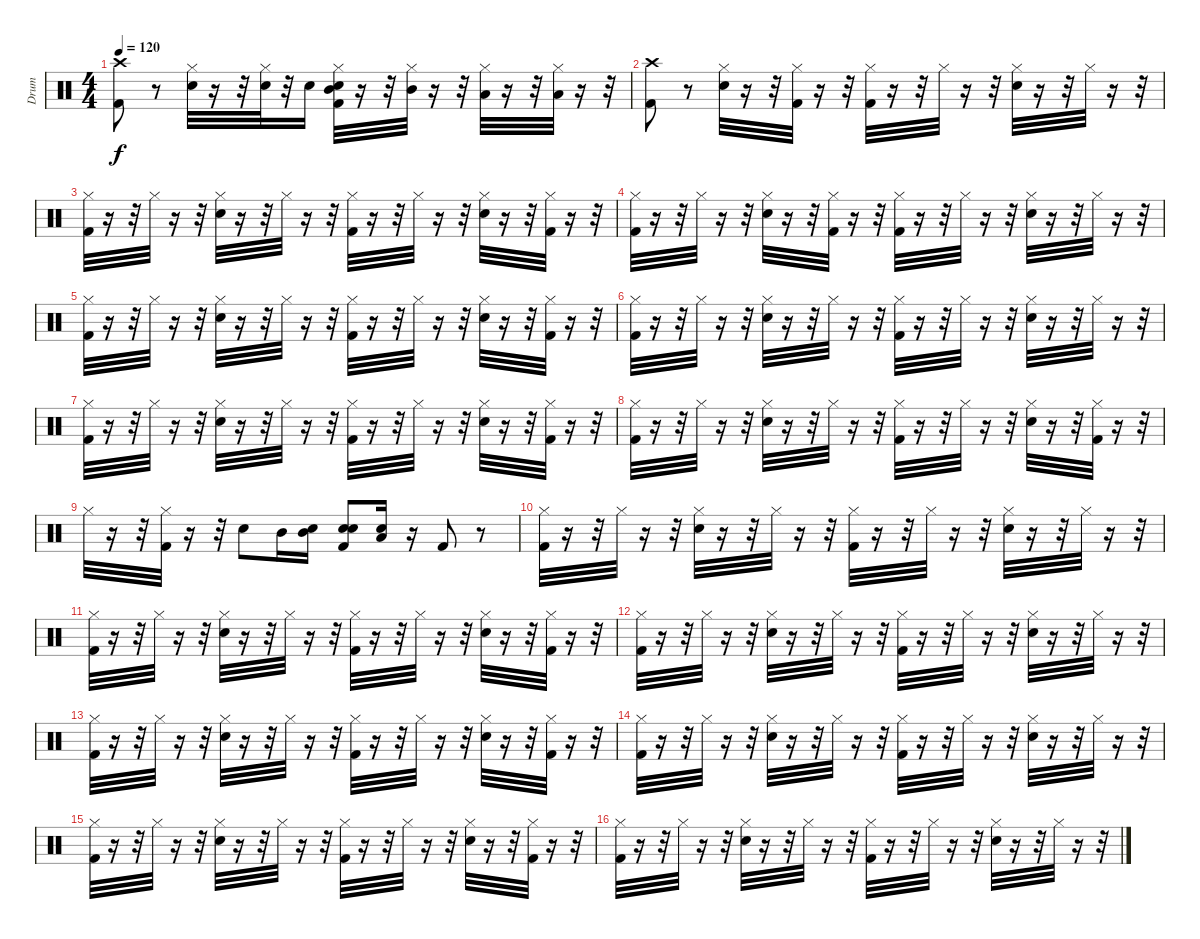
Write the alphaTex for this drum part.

\track ("Drum" "Drum") {instrument percussion}
\staff {score}
\articulation defaults
\ts (4 4)
\tempo 120
\clef neutral
\ks c
("Kick (hit) 2" "Crash high (hit)").8{dy f} r.8 ("Snare (hit) 2" "Hi-Hat (closed)").32 r.16 r.32 ("Snare (hit) 2" "Hi-Hat (closed)").32 r.32 "Snare (hit) 2".16 ("Snare (hit)" "Kick (hit) 2" "Hi-Hat (closed)" "Mid Tom (hit)").32 r.16 r.32 ("Hi-Hat (closed)" "Mid Tom (hit)").32 r.16 r.32 ("Hi-Hat (closed)" "Low Tom (hit)").32 r.16 r.32 ("Hi-Hat (closed)" "Low Tom (hit)").32 r.16 r.32 |
("Kick (hit) 2" "Crash high (hit)").8 r.8 ("Snare (hit) 2" "Hi-Hat (closed)").32 r.16 r.32 ("Kick (hit) 2" "Hi-Hat (closed)").32 r.16 r.32 ("Kick (hit) 2" "Hi-Hat (closed)").32 r.16 r.32 "Hi-Hat (closed)".32 r.16 r.32 ("Snare (hit) 2" "Hi-Hat (closed)").32 r.16 r.32 "Hi-Hat (closed)".32 r.16 r.32 |
("Kick (hit) 2" "Hi-Hat (closed)").32 r.16 r.32 "Hi-Hat (closed)".32 r.16 r.32 ("Snare (hit) 2" "Hi-Hat (closed)").32 r.16 r.32 "Hi-Hat (closed)".32 r.16 r.32 ("Kick (hit) 2" "Hi-Hat (closed)").32 r.16 r.32 "Hi-Hat (closed)".32 r.16 r.32 ("Snare (hit) 2" "Hi-Hat (closed)").32 r.16 r.32 ("Kick (hit) 2" "Hi-Hat (closed)").32 r.16 r.32 |
("Kick (hit) 2" "Hi-Hat (closed)").32 r.16 r.32 "Hi-Hat (closed)".32 r.16 r.32 ("Snare (hit) 2" "Hi-Hat (closed)").32 r.16 r.32 ("Kick (hit) 2" "Hi-Hat (closed)").32 r.16 r.32 ("Kick (hit) 2" "Hi-Hat (closed)").32 r.16 r.32 "Hi-Hat (closed)".32 r.16 r.32 ("Snare (hit) 2" "Hi-Hat (closed)").32 r.16 r.32 "Hi-Hat (closed)".32 r.16 r.32 |
("Kick (hit) 2" "Hi-Hat (closed)").32 r.16 r.32 "Hi-Hat (closed)".32 r.16 r.32 ("Snare (hit) 2" "Hi-Hat (closed)").32 r.16 r.32 "Hi-Hat (closed)".32 r.16 r.32 ("Kick (hit) 2" "Hi-Hat (closed)").32 r.16 r.32 "Hi-Hat (closed)".32 r.16 r.32 ("Snare (hit) 2" "Hi-Hat (closed)").32 r.16 r.32 ("Kick (hit) 2" "Hi-Hat (closed)").32 r.16 r.32 |
("Kick (hit) 2" "Hi-Hat (closed)").32 r.16 r.32 "Hi-Hat (closed)".32 r.16 r.32 ("Snare (hit) 2" "Hi-Hat (closed)").32 r.16 r.32 "Hi-Hat (closed)".32 r.16 r.32 ("Kick (hit) 2" "Hi-Hat (closed)").32 r.16 r.32 "Hi-Hat (closed)".32 r.16 r.32 ("Snare (hit) 2" "Hi-Hat (closed)").32 r.16 r.32 "Hi-Hat (closed)".32 r.16 r.32 |
("Kick (hit) 2" "Hi-Hat (closed)").32 r.16 r.32 "Hi-Hat (closed)".32 r.16 r.32 ("Snare (hit) 2" "Hi-Hat (closed)").32 r.16 r.32 "Hi-Hat (closed)".32 r.16 r.32 ("Kick (hit) 2" "Hi-Hat (closed)").32 r.16 r.32 "Hi-Hat (closed)".32 r.16 r.32 ("Snare (hit) 2" "Hi-Hat (closed)").32 r.16 r.32 ("Kick (hit) 2" "Hi-Hat (closed)").32 r.16 r.32 |
("Kick (hit) 2" "Hi-Hat (closed)").32 r.16 r.32 "Hi-Hat (closed)".32 r.16 r.32 ("Snare (hit) 2" "Hi-Hat (closed)").32 r.16 r.32 "Hi-Hat (closed)".32 r.16 r.32 ("Kick (hit) 2" "Hi-Hat (closed)").32 r.16 r.32 "Hi-Hat (closed)".32 r.16 r.32 ("Snare (hit) 2" "Hi-Hat (closed)").32 r.16 r.32 ("Kick (hit) 2" "Hi-Hat (closed)").32 r.16 r.32 |
"Hi-Hat (closed)".32 r.16 r.32 ("Kick (hit) 2" "Hi-Hat (closed)").32 r.16 r.32 "Snare (hit) 2".8 "Mid Tom (hit)".16 ("Snare (hit)" "Mid Tom (hit)").16 ("Snare (hit)" "Kick (hit) 2" "Snare (hit) 2").8 ("Snare (hit)" "Low Tom (hit)").16 r.16 "Kick (hit) 2".8 r.8 |
("Kick (hit) 2" "Hi-Hat (closed)").32 r.16 r.32 "Hi-Hat (closed)".32 r.16 r.32 ("Snare (hit) 2" "Hi-Hat (closed)").32 r.16 r.32 "Hi-Hat (closed)".32 r.16 r.32 ("Kick (hit) 2" "Hi-Hat (closed)").32 r.16 r.32 "Hi-Hat (closed)".32 r.16 r.32 ("Snare (hit) 2" "Hi-Hat (closed)").32 r.16 r.32 "Hi-Hat (closed)".32 r.16 r.32 |
("Kick (hit) 2" "Hi-Hat (closed)").32 r.16 r.32 "Hi-Hat (closed)".32 r.16 r.32 ("Snare (hit) 2" "Hi-Hat (closed)").32 r.16 r.32 "Hi-Hat (closed)".32 r.16 r.32 ("Kick (hit) 2" "Hi-Hat (closed)").32 r.16 r.32 "Hi-Hat (closed)".32 r.16 r.32 ("Snare (hit) 2" "Hi-Hat (closed)").32 r.16 r.32 ("Kick (hit) 2" "Hi-Hat (closed)").32 r.16 r.32 |
("Kick (hit) 2" "Hi-Hat (closed)").32 r.16 r.32 "Hi-Hat (closed)".32 r.16 r.32 ("Snare (hit) 2" "Hi-Hat (closed)").32 r.16 r.32 "Hi-Hat (closed)".32 r.16 r.32 ("Kick (hit) 2" "Hi-Hat (closed)").32 r.16 r.32 "Hi-Hat (closed)".32 r.16 r.32 ("Snare (hit) 2" "Hi-Hat (closed)").32 r.16 r.32 "Hi-Hat (closed)".32 r.16 r.32 |
("Kick (hit) 2" "Hi-Hat (closed)").32 r.16 r.32 "Hi-Hat (closed)".32 r.16 r.32 ("Snare (hit) 2" "Hi-Hat (closed)").32 r.16 r.32 "Hi-Hat (closed)".32 r.16 r.32 ("Kick (hit) 2" "Hi-Hat (closed)").32 r.16 r.32 "Hi-Hat (closed)".32 r.16 r.32 ("Snare (hit) 2" "Hi-Hat (closed)").32 r.16 r.32 ("Kick (hit) 2" "Hi-Hat (closed)").32 r.16 r.32 |
("Kick (hit) 2" "Hi-Hat (closed)").32 r.16 r.32 "Hi-Hat (closed)".32 r.16 r.32 ("Snare (hit) 2" "Hi-Hat (closed)").32 r.16 r.32 "Hi-Hat (closed)".32 r.16 r.32 ("Kick (hit) 2" "Hi-Hat (closed)").32 r.16 r.32 "Hi-Hat (closed)".32 r.16 r.32 ("Snare (hit) 2" "Hi-Hat (closed)").32 r.16 r.32 "Hi-Hat (closed)".32 r.16 r.32 |
("Kick (hit) 2" "Hi-Hat (closed)").32 r.16 r.32 "Hi-Hat (closed)".32 r.16 r.32 ("Snare (hit) 2" "Hi-Hat (closed)").32 r.16 r.32 "Hi-Hat (closed)".32 r.16 r.32 ("Kick (hit) 2" "Hi-Hat (closed)").32 r.16 r.32 "Hi-Hat (closed)".32 r.16 r.32 ("Snare (hit) 2" "Hi-Hat (closed)").32 r.16 r.32 ("Kick (hit) 2" "Hi-Hat (closed)").32 r.16 r.32 |
("Kick (hit) 2" "Hi-Hat (closed)").32 r.16 r.32 "Hi-Hat (closed)".32 r.16 r.32 ("Snare (hit) 2" "Hi-Hat (closed)").32 r.16 r.32 "Hi-Hat (closed)".32 r.16 r.32 ("Kick (hit) 2" "Hi-Hat (closed)").32 r.16 r.32 "Hi-Hat (closed)".32 r.16 r.32 ("Snare (hit) 2" "Hi-Hat (closed)").32 r.16 r.32 "Hi-Hat (closed)".32 r.16 r.32
